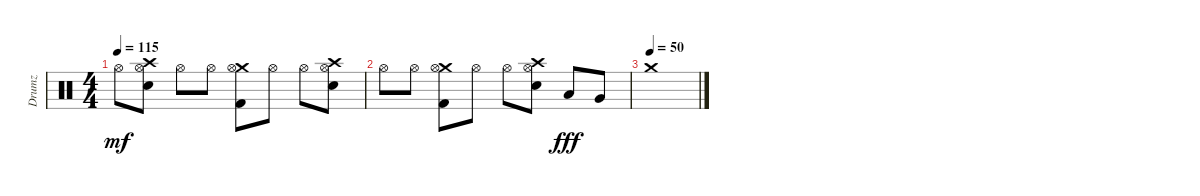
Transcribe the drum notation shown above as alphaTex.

\track ("Drumz" "Drumz") {instrument percussion}
\staff
\articulation defaults
\ts (4 4)
\tempo 115
\clef neutral
\ks c "Hi-Hat (open)".8{dy mf}
("Crash high (hit)" "Hi-Hat (open)" "Snare (hit) 2").8 "Hi-Hat (open)".8 "Hi-Hat (open)".8 ("Crash medium (hit)" "Hi-Hat (open)" "Kick (hit) 2").8 "Hi-Hat (open)".8 "Hi-Hat (open)".8 ("Crash high (hit)" "Hi-Hat (open)" "Snare (hit) 2").8 |
"Hi-Hat (open)".8 "Hi-Hat (open)".8 ("Crash medium (hit)" "Hi-Hat (open)" "Kick (hit) 2").8 "Hi-Hat (open)".8 "Hi-Hat (open)".8 ("Crash high (hit)" "Hi-Hat (open)" "Snare (hit) 2").8 "Low Floor Tom (hit)".8{dy fff} "Very Low Tom (hit)".8 |
\tempo (50)
"Crash medium (hit)".1
